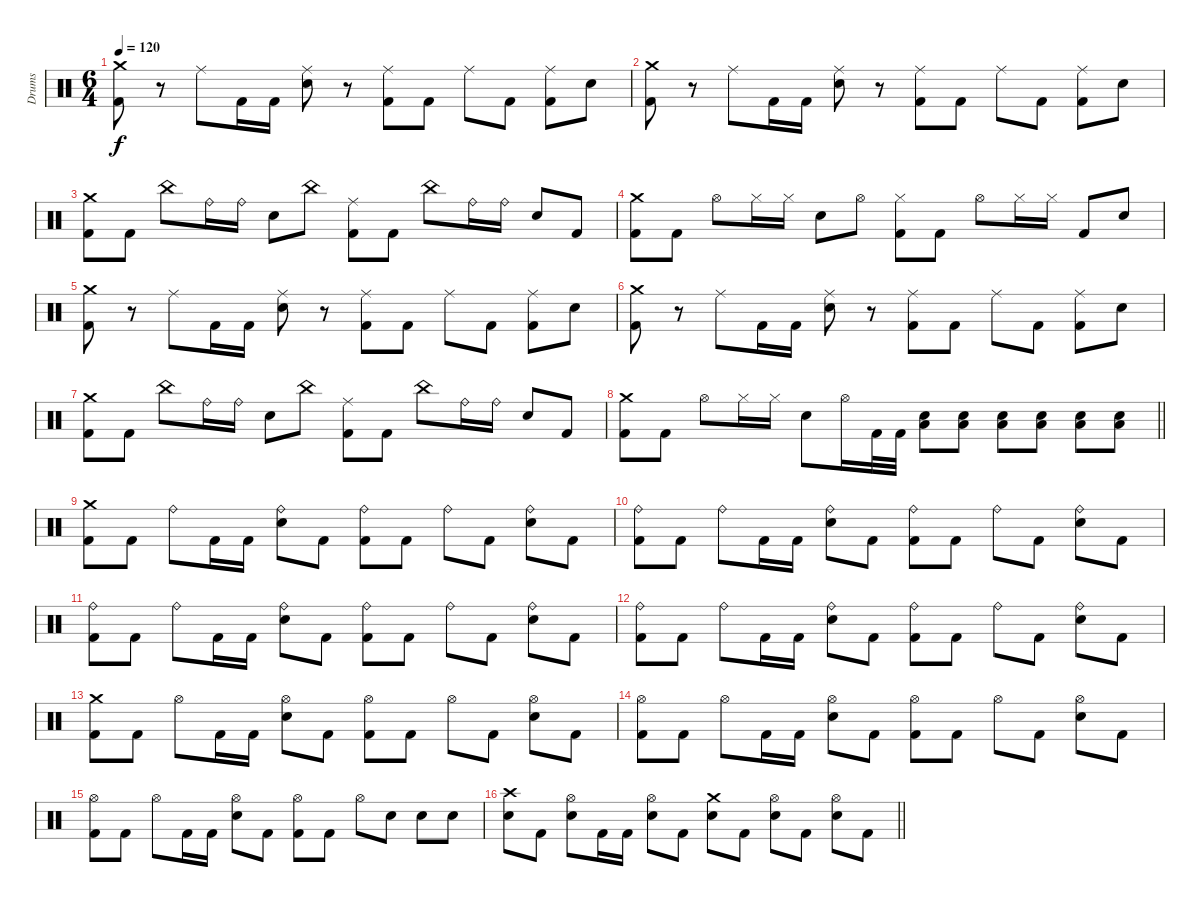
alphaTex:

\track ("Drums" "Drums") {instrument percussion}
\staff {score}
\articulation defaults
\ts (6 4)
\tempo 120
\clef neutral
\ks c
("Crash medium (hit)" "Kick (hit) 2").8{dy f} r.8 "Ride (middle)".8 "Kick (hit) 2".16 "Kick (hit) 2".16 ("Ride (middle)" "Snare (hit) 2").8 r.8 ("Ride (middle)" "Kick (hit) 2").8 "Kick (hit) 2".8 "Ride (middle)".8 "Kick (hit) 2".8 ("Ride (middle)" "Kick (hit) 2").8 "Snare (hit) 2".8 |
("Crash medium (hit)" "Kick (hit) 2").8 r.8 "Ride (middle)".8 "Kick (hit) 2".16 "Kick (hit) 2".16 ("Ride (middle)" "Snare (hit) 2").8 r.8 ("Ride (middle)" "Kick (hit) 2").8 "Kick (hit) 2".8 "Ride (middle)".8 "Kick (hit) 2".8 ("Ride (middle)" "Kick (hit) 2").8 "Snare (hit) 2".8 |
("Crash medium (hit)" "Kick (hit) 2").8 "Kick (hit) 2".8 "China (hit)".8 "Ride (bell)".16 "Ride (bell)".16 "Snare (hit) 2".8 "China (hit)".8 ("Ride (middle)" "Kick (hit) 2").8 "Kick (hit) 2".8 "China (hit)".8 "Ride (bell)".16 "Ride (bell)".16 "Snare (hit) 2".8 "Kick (hit) 2".8 |
("Crash medium (hit)" "Kick (hit) 2").8 "Kick (hit) 2".8 "Hi-Hat (open)".8 "Hi-Hat (closed)".16 "Hi-Hat (closed)".16 "Snare (hit) 2".8 "Hi-Hat (open)".8 ("Hi-Hat (closed)" "Kick (hit) 2").8 "Kick (hit) 2".8 "Hi-Hat (open)".8 "Hi-Hat (closed)".16 "Hi-Hat (closed)".16 "Kick (hit) 2".8 "Snare (hit) 2".8 |
("Crash medium (hit)" "Kick (hit) 2").8 r.8 "Ride (middle)".8 "Kick (hit) 2".16 "Kick (hit) 2".16 ("Ride (middle)" "Snare (hit) 2").8 r.8 ("Ride (middle)" "Kick (hit) 2").8 "Kick (hit) 2".8 "Ride (middle)".8 "Kick (hit) 2".8 ("Ride (middle)" "Kick (hit) 2").8 "Snare (hit) 2".8 |
("Crash medium (hit)" "Kick (hit) 2").8 r.8 "Ride (middle)".8 "Kick (hit) 2".16 "Kick (hit) 2".16 ("Ride (middle)" "Snare (hit) 2").8 r.8 ("Ride (middle)" "Kick (hit) 2").8 "Kick (hit) 2".8 "Ride (middle)".8 "Kick (hit) 2".8 ("Ride (middle)" "Kick (hit) 2").8 "Snare (hit) 2".8 |
("Crash medium (hit)" "Kick (hit) 2").8 "Kick (hit) 2".8 "China (hit)".8 "Ride (bell)".16 "Ride (bell)".16 "Snare (hit) 2".8 "China (hit)".8 ("Ride (middle)" "Kick (hit) 2").8 "Kick (hit) 2".8 "China (hit)".8 "Ride (bell)".16 "Ride (bell)".16 "Snare (hit) 2".8 "Kick (hit) 2".8 |
\barLineRight lightlight
("Crash medium (hit)" "Kick (hit) 2").8 "Kick (hit) 2".8 "Hi-Hat (open)".8 "Hi-Hat (closed)".16 "Hi-Hat (closed)".16 "Snare (hit) 2".8 "Hi-Hat (open)".16 "Kick (hit) 2".32 "Kick (hit) 2".32 ("Snare (hit) 2" "Low Floor Tom (hit)").8 ("Snare (hit) 2" "Low Floor Tom (hit)").8 ("Snare (hit) 2" "Low Floor Tom (hit)").8 ("Snare (hit) 2" "Low Floor Tom (hit)").8 ("Snare (hit) 2" "Low Floor Tom (hit)").8 ("Snare (hit) 2" "Low Floor Tom (hit)").8 |
("Crash medium (hit)" "Kick (hit) 2").8 "Kick (hit) 2".8 "Ride (bell)".8 "Kick (hit) 2".16 "Kick (hit) 2".16 ("Ride (bell)" "Snare (hit) 2").8 "Kick (hit) 2".8 ("Ride (bell)" "Kick (hit) 2").8 "Kick (hit) 2".8 "Ride (bell)".8 "Kick (hit) 2".8 ("Ride (bell)" "Snare (hit) 2").8 "Kick (hit) 2".8 |
("Ride (bell)" "Kick (hit) 2").8 "Kick (hit) 2".8 "Ride (bell)".8 "Kick (hit) 2".16 "Kick (hit) 2".16 ("Ride (bell)" "Snare (hit) 2").8 "Kick (hit) 2".8 ("Ride (bell)" "Kick (hit) 2").8 "Kick (hit) 2".8 "Ride (bell)".8 "Kick (hit) 2".8 ("Ride (bell)" "Snare (hit) 2").8 "Kick (hit) 2".8 |
("Ride (bell)" "Kick (hit) 2").8 "Kick (hit) 2".8 "Ride (bell)".8 "Kick (hit) 2".16 "Kick (hit) 2".16 ("Ride (bell)" "Snare (hit) 2").8 "Kick (hit) 2".8 ("Ride (bell)" "Kick (hit) 2").8 "Kick (hit) 2".8 "Ride (bell)".8 "Kick (hit) 2".8 ("Ride (bell)" "Snare (hit) 2").8 "Kick (hit) 2".8 |
("Ride (bell)" "Kick (hit) 2").8 "Kick (hit) 2".8 "Ride (bell)".8 "Kick (hit) 2".16 "Kick (hit) 2".16 ("Ride (bell)" "Snare (hit) 2").8 "Kick (hit) 2".8 ("Ride (bell)" "Kick (hit) 2").8 "Kick (hit) 2".8 "Ride (bell)".8 "Kick (hit) 2".8 ("Ride (bell)" "Snare (hit) 2").8 "Kick (hit) 2".8 |
("Crash medium (hit)" "Kick (hit) 2").8 "Kick (hit) 2".8 "Hi-Hat (open)".8 "Kick (hit) 2".16 "Kick (hit) 2".16 ("Hi-Hat (open)" "Snare (hit) 2").8 "Kick (hit) 2".8 ("Hi-Hat (open)" "Kick (hit) 2").8 "Kick (hit) 2".8 "Hi-Hat (open)".8 "Kick (hit) 2".8 ("Hi-Hat (open)" "Snare (hit) 2").8 "Kick (hit) 2".8 |
("Hi-Hat (open)" "Kick (hit) 2").8 "Kick (hit) 2".8 "Hi-Hat (open)".8 "Kick (hit) 2".16 "Kick (hit) 2".16 ("Hi-Hat (open)" "Snare (hit) 2").8 "Kick (hit) 2".8 ("Hi-Hat (open)" "Kick (hit) 2").8 "Kick (hit) 2".8 "Hi-Hat (open)".8 "Kick (hit) 2".8 ("Hi-Hat (open)" "Snare (hit) 2").8 "Kick (hit) 2".8 |
("Hi-Hat (open)" "Kick (hit) 2").8 "Kick (hit) 2".8 "Hi-Hat (open)".8 "Kick (hit) 2".16 "Kick (hit) 2".16 ("Hi-Hat (open)" "Snare (hit) 2").8 "Kick (hit) 2".8 ("Hi-Hat (open)" "Kick (hit) 2").8 "Kick (hit) 2".8 "Hi-Hat (open)".8 "Snare (hit) 2".8 "Snare (hit) 2".8 "Snare (hit) 2".8 |
\barLineRight lightlight
("Crash high (hit)" "Snare (hit) 2").8 "Kick (hit) 2".8 ("Hi-Hat (open)" "Snare (hit) 2").8 "Kick (hit) 2".16 "Kick (hit) 2".16 ("Hi-Hat (open)" "Snare (hit) 2").8 "Kick (hit) 2".8 ("Crash medium (hit)" "Snare (hit) 2").8 "Kick (hit) 2".8 ("Hi-Hat (open)" "Snare (hit) 2").8 "Kick (hit) 2".8 ("Hi-Hat (open)" "Snare (hit) 2").8 "Kick (hit) 2".8
